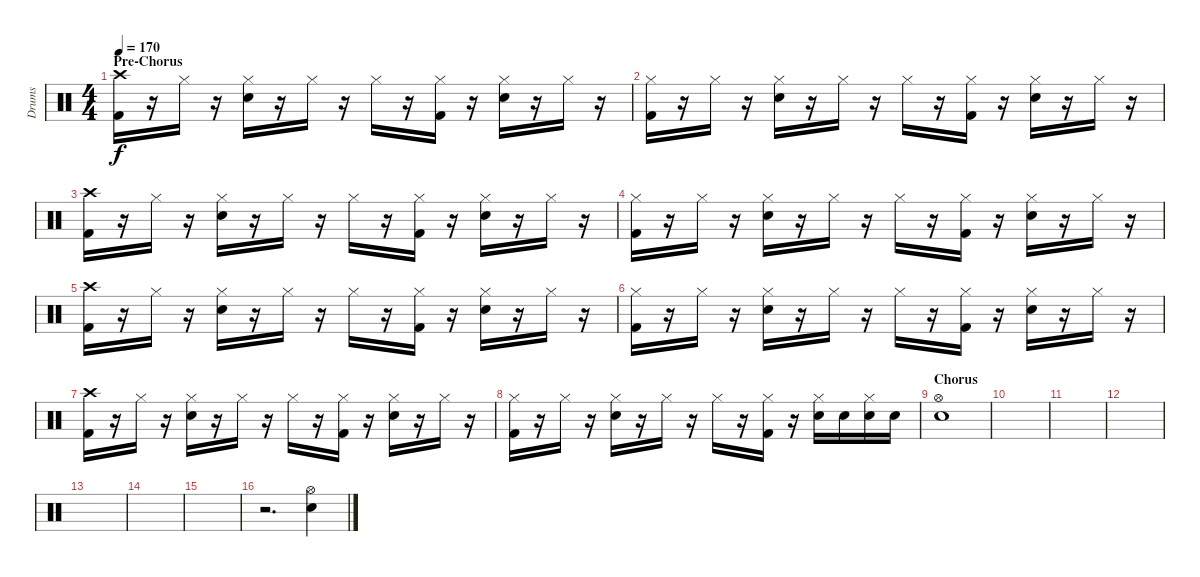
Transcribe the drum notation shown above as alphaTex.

\track ("Drums" "Drums") {instrument percussion}
\staff {score}
\articulation defaults
\ts (4 4)
\section ("" "Pre-Chorus")
\tempo 170
\clef neutral
\ks c
("Kick (hit) 2" "Crash high (hit)").16{dy f} r.16 "Hi-Hat (closed)".16 r.16 ("Hi-Hat (closed)" "Snare (hit) 2").16 r.16 "Hi-Hat (closed)".16 r.16 "Hi-Hat (closed)".16 r.16 ("Hi-Hat (closed)" "Kick (hit) 2").16 r.16 ("Hi-Hat (closed)" "Snare (hit) 2").16 r.16 "Hi-Hat (closed)".16 r.16 |
("Kick (hit) 2" "Hi-Hat (closed)").16 r.16 "Hi-Hat (closed)".16 r.16 ("Hi-Hat (closed)" "Snare (hit) 2").16 r.16 "Hi-Hat (closed)".16 r.16 "Hi-Hat (closed)".16 r.16 ("Hi-Hat (closed)" "Kick (hit) 2").16 r.16 ("Hi-Hat (closed)" "Snare (hit) 2").16 r.16 "Hi-Hat (closed)".16 r.16 |
("Kick (hit) 2" "Crash high (hit)").16 r.16 "Hi-Hat (closed)".16 r.16 ("Hi-Hat (closed)" "Snare (hit) 2").16 r.16 "Hi-Hat (closed)".16 r.16 "Hi-Hat (closed)".16 r.16 ("Hi-Hat (closed)" "Kick (hit) 2").16 r.16 ("Hi-Hat (closed)" "Snare (hit) 2").16 r.16 "Hi-Hat (closed)".16 r.16 |
("Kick (hit) 2" "Hi-Hat (closed)").16 r.16 "Hi-Hat (closed)".16 r.16 ("Hi-Hat (closed)" "Snare (hit) 2").16 r.16 "Hi-Hat (closed)".16 r.16 "Hi-Hat (closed)".16 r.16 ("Hi-Hat (closed)" "Kick (hit) 2").16 r.16 ("Hi-Hat (closed)" "Snare (hit) 2").16 r.16 "Hi-Hat (closed)".16 r.16 |
("Kick (hit) 2" "Crash high (hit)").16 r.16 "Hi-Hat (closed)".16 r.16 ("Hi-Hat (closed)" "Snare (hit) 2").16 r.16 "Hi-Hat (closed)".16 r.16 "Hi-Hat (closed)".16 r.16 ("Hi-Hat (closed)" "Kick (hit) 2").16 r.16 ("Hi-Hat (closed)" "Snare (hit) 2").16 r.16 "Hi-Hat (closed)".16 r.16 |
("Kick (hit) 2" "Hi-Hat (closed)").16 r.16 "Hi-Hat (closed)".16 r.16 ("Hi-Hat (closed)" "Snare (hit) 2").16 r.16 "Hi-Hat (closed)".16 r.16 "Hi-Hat (closed)".16 r.16 ("Hi-Hat (closed)" "Kick (hit) 2").16 r.16 ("Hi-Hat (closed)" "Snare (hit) 2").16 r.16 "Hi-Hat (closed)".16 r.16 |
("Kick (hit) 2" "Crash high (hit)").16 r.16 "Hi-Hat (closed)".16 r.16 ("Hi-Hat (closed)" "Snare (hit) 2").16 r.16 "Hi-Hat (closed)".16 r.16 "Hi-Hat (closed)".16 r.16 ("Hi-Hat (closed)" "Kick (hit) 2").16 r.16 ("Hi-Hat (closed)" "Snare (hit) 2").16 r.16 "Hi-Hat (closed)".16 r.16 |
("Kick (hit) 2" "Hi-Hat (closed)").16 r.16 "Hi-Hat (closed)".16 r.16 ("Hi-Hat (closed)" "Snare (hit) 2").16 r.16 "Hi-Hat (closed)".16 r.16 "Hi-Hat (closed)".16 r.16 ("Hi-Hat (closed)" "Kick (hit) 2").16 r.16 ("Hi-Hat (closed)" "Snare (hit) 2").16 "Snare (hit) 2".16 ("Hi-Hat (closed)" "Snare (hit) 2").16 "Snare (hit) 2".16 |
\section ("" "Chorus")
("Snare (hit) 2" "Hi-Hat (open)").1 |
|
|
|
|
|
|
r.2{d} ("Snare (hit) 2" "Hi-Hat (open)").4
